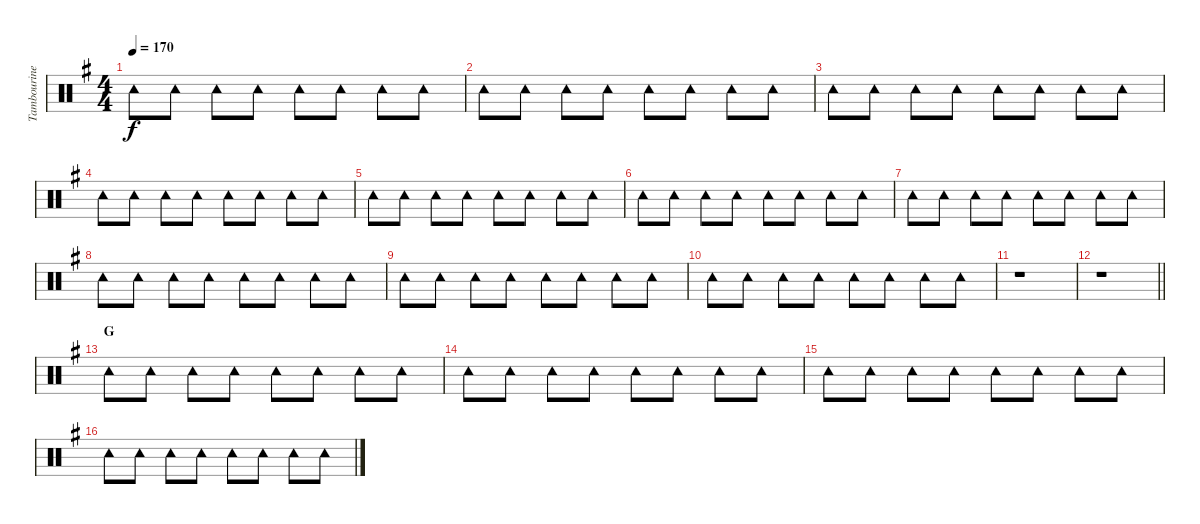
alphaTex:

\track ("Tambourine" "Tambourine") {instrument percussion}
\staff {score}
\articulation defaults
\ts (4 4)
\tempo 170
\clef neutral
\ks g "Tambourine (hit)".8{dy f} "Tambourine (hit)".8 "Tambourine (hit)".8 "Tambourine (hit)".8 "Tambourine (hit)".8 "Tambourine (hit)".8 "Tambourine (hit)".8 "Tambourine (hit)".8
|
"Tambourine (hit)".8 "Tambourine (hit)".8 "Tambourine (hit)".8 "Tambourine (hit)".8 "Tambourine (hit)".8 "Tambourine (hit)".8 "Tambourine (hit)".8 "Tambourine (hit)".8 |
"Tambourine (hit)".8 "Tambourine (hit)".8 "Tambourine (hit)".8 "Tambourine (hit)".8 "Tambourine (hit)".8 "Tambourine (hit)".8 "Tambourine (hit)".8 "Tambourine (hit)".8 |
"Tambourine (hit)".8 "Tambourine (hit)".8 "Tambourine (hit)".8 "Tambourine (hit)".8 "Tambourine (hit)".8 "Tambourine (hit)".8 "Tambourine (hit)".8 "Tambourine (hit)".8 |
"Tambourine (hit)".8 "Tambourine (hit)".8 "Tambourine (hit)".8 "Tambourine (hit)".8 "Tambourine (hit)".8 "Tambourine (hit)".8 "Tambourine (hit)".8 "Tambourine (hit)".8 |
"Tambourine (hit)".8 "Tambourine (hit)".8 "Tambourine (hit)".8 "Tambourine (hit)".8 "Tambourine (hit)".8 "Tambourine (hit)".8 "Tambourine (hit)".8 "Tambourine (hit)".8 |
"Tambourine (hit)".8 "Tambourine (hit)".8 "Tambourine (hit)".8 "Tambourine (hit)".8 "Tambourine (hit)".8 "Tambourine (hit)".8 "Tambourine (hit)".8 "Tambourine (hit)".8 |
"Tambourine (hit)".8 "Tambourine (hit)".8 "Tambourine (hit)".8 "Tambourine (hit)".8 "Tambourine (hit)".8 "Tambourine (hit)".8 "Tambourine (hit)".8 "Tambourine (hit)".8 |
"Tambourine (hit)".8 "Tambourine (hit)".8 "Tambourine (hit)".8 "Tambourine (hit)".8 "Tambourine (hit)".8 "Tambourine (hit)".8 "Tambourine (hit)".8 "Tambourine (hit)".8 |
"Tambourine (hit)".8 "Tambourine (hit)".8 "Tambourine (hit)".8 "Tambourine (hit)".8 "Tambourine (hit)".8 "Tambourine (hit)".8 "Tambourine (hit)".8 "Tambourine (hit)".8 |
r.1 |
\barLineRight lightlight
r.1 |
\section ("" "G")
"Tambourine (hit)".8 "Tambourine (hit)".8 "Tambourine (hit)".8 "Tambourine (hit)".8 "Tambourine (hit)".8 "Tambourine (hit)".8 "Tambourine (hit)".8 "Tambourine (hit)".8 |
"Tambourine (hit)".8 "Tambourine (hit)".8 "Tambourine (hit)".8 "Tambourine (hit)".8 "Tambourine (hit)".8 "Tambourine (hit)".8 "Tambourine (hit)".8 "Tambourine (hit)".8 |
"Tambourine (hit)".8 "Tambourine (hit)".8 "Tambourine (hit)".8 "Tambourine (hit)".8 "Tambourine (hit)".8 "Tambourine (hit)".8 "Tambourine (hit)".8 "Tambourine (hit)".8 |
"Tambourine (hit)".8 "Tambourine (hit)".8 "Tambourine (hit)".8 "Tambourine (hit)".8 "Tambourine (hit)".8 "Tambourine (hit)".8 "Tambourine (hit)".8 "Tambourine (hit)".8
